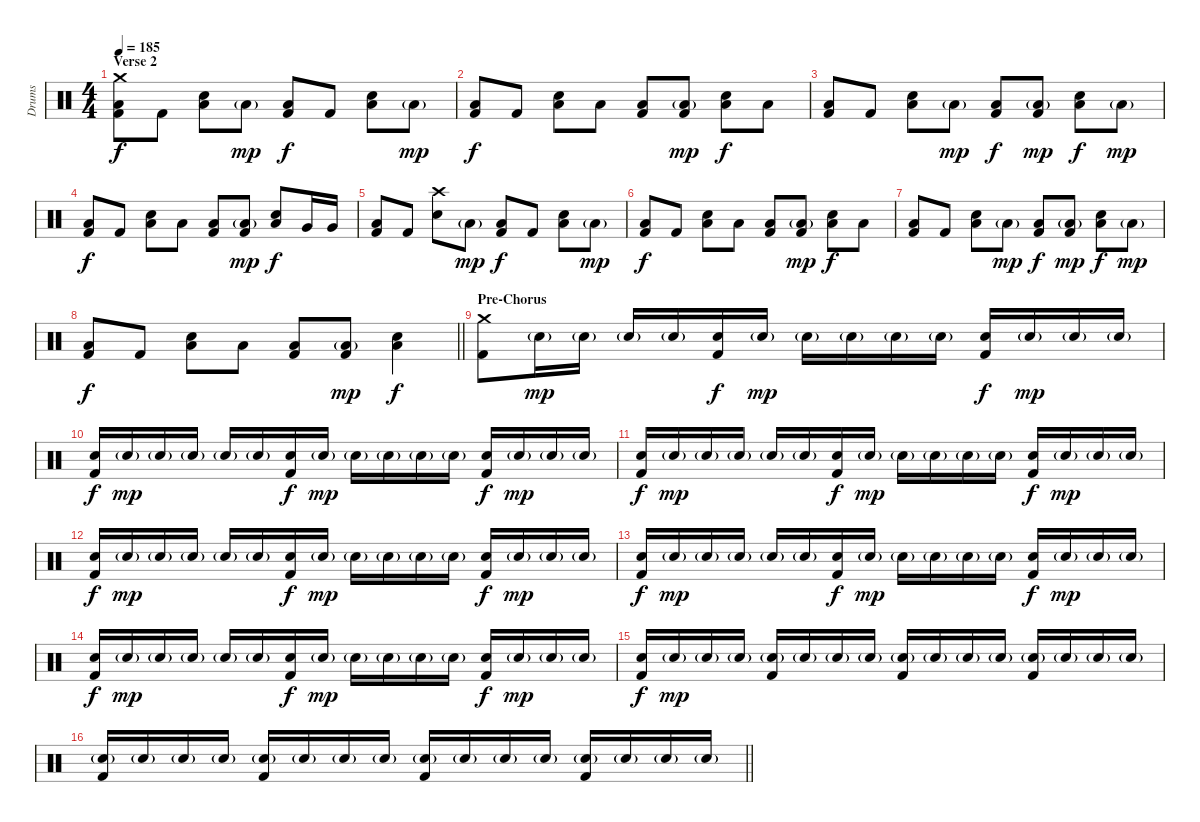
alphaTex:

\track ("Drums" "Drums") {instrument percussion}
\staff {score}
\articulation defaults
\ts (4 4)
\section ("" "Verse 2")
\tempo 185
\clef neutral
\ks c
("Crash medium (hit)" "Low Floor Tom (hit)" "Kick (hit) 2").8{dy f} "Kick (hit) 2".8 ("Low Floor Tom (hit)" "Electric Snare (hit)").8 "Low Floor Tom (hit)"{g}.8{dy mp} ("Low Floor Tom (hit)" "Kick (hit) 2").8{dy f} "Kick (hit) 2".8 ("Low Floor Tom (hit)" "Electric Snare (hit)").8 "Low Floor Tom (hit)"{g}.8{dy mp} |
("Low Floor Tom (hit)" "Kick (hit) 2").8{dy f} "Kick (hit) 2".8 ("Low Floor Tom (hit)" "Electric Snare (hit)").8 "Low Floor Tom (hit)".8 ("Low Floor Tom (hit)" "Kick (hit) 2").8 ("Low Floor Tom (hit)"{g} "Kick (hit) 2").8{dy mp} ("Low Floor Tom (hit)" "Electric Snare (hit)").8{dy f} "Low Floor Tom (hit)".8 |
("Low Floor Tom (hit)" "Kick (hit) 2").8 "Kick (hit) 2".8 ("Low Floor Tom (hit)" "Electric Snare (hit)").8 "Low Floor Tom (hit)"{g}.8{dy mp} ("Low Floor Tom (hit)" "Kick (hit) 2").8{dy f} ("Low Floor Tom (hit)"{g} "Kick (hit) 2").8{dy mp} ("Low Floor Tom (hit)" "Electric Snare (hit)").8{dy f} "Low Floor Tom (hit)"{g}.8{dy mp} |
("Low Floor Tom (hit)" "Kick (hit) 2").8{dy f} "Kick (hit) 2".8 ("Low Floor Tom (hit)" "Electric Snare (hit)").8 "Low Floor Tom (hit)".8 ("Low Floor Tom (hit)" "Kick (hit) 2").8 ("Low Floor Tom (hit)"{g} "Kick (hit) 2").8{dy mp} ("Low Floor Tom (hit)" "Electric Snare (hit)").8{dy f} "Very Low Tom (hit)".16 "Very Low Tom (hit)".16 |
("Low Floor Tom (hit)" "Kick (hit) 2").8 "Kick (hit) 2".8 ("Crash high (hit)" "Electric Snare (hit)").8 "Low Floor Tom (hit)"{g}.8{dy mp} ("Low Floor Tom (hit)" "Kick (hit) 2").8{dy f} "Kick (hit) 2".8 ("Low Floor Tom (hit)" "Electric Snare (hit)").8 "Low Floor Tom (hit)"{g}.8{dy mp} |
("Low Floor Tom (hit)" "Kick (hit) 2").8{dy f} "Kick (hit) 2".8 ("Low Floor Tom (hit)" "Electric Snare (hit)").8 "Low Floor Tom (hit)".8 ("Low Floor Tom (hit)" "Kick (hit) 2").8 ("Low Floor Tom (hit)"{g} "Kick (hit) 2").8{dy mp} ("Low Floor Tom (hit)" "Electric Snare (hit)").8{dy f} "Low Floor Tom (hit)".8 |
("Low Floor Tom (hit)" "Kick (hit) 2").8 "Kick (hit) 2".8 ("Low Floor Tom (hit)" "Electric Snare (hit)").8 "Low Floor Tom (hit)"{g}.8{dy mp} ("Low Floor Tom (hit)" "Kick (hit) 2").8{dy f} ("Low Floor Tom (hit)"{g} "Kick (hit) 2").8{dy mp} ("Low Floor Tom (hit)" "Electric Snare (hit)").8{dy f} "Low Floor Tom (hit)"{g}.8{dy mp} |
\barLineRight lightlight
("Low Floor Tom (hit)" "Kick (hit) 2").8{dy f} "Kick (hit) 2".8 ("Low Floor Tom (hit)" "Electric Snare (hit)").8 "Low Floor Tom (hit)".8 ("Low Floor Tom (hit)" "Kick (hit) 2").8 ("Low Floor Tom (hit)"{g} "Kick (hit) 2").8{dy mp} ("Low Floor Tom (hit)" "Electric Snare (hit)").4{dy f} |
\section ("" "Pre-Chorus")
("Crash medium (hit)" "Kick (hit) 2").8 "Electric Snare (hit)"{g}.16{dy mp} "Electric Snare (hit)"{g}.16 "Electric Snare (hit)"{g}.16 "Electric Snare (hit)"{g}.16 ("Electric Snare (hit)" "Kick (hit) 2").16{dy f} "Electric Snare (hit)"{g}.16{dy mp} "Electric Snare (hit)"{g}.16 "Electric Snare (hit)"{g}.16 "Electric Snare (hit)"{g}.16 "Electric Snare (hit)"{g}.16 ("Electric Snare (hit)" "Kick (hit) 2").16{dy f} "Electric Snare (hit)"{g}.16{dy mp} "Electric Snare (hit)"{g}.16 "Electric Snare (hit)"{g}.16 |
("Electric Snare (hit)" "Kick (hit) 2").16{dy f} "Electric Snare (hit)"{g}.16{dy mp} "Electric Snare (hit)"{g}.16 "Electric Snare (hit)"{g}.16 "Electric Snare (hit)"{g}.16 "Electric Snare (hit)"{g}.16 ("Electric Snare (hit)" "Kick (hit) 2").16{dy f} "Electric Snare (hit)"{g}.16{dy mp} "Electric Snare (hit)"{g}.16 "Electric Snare (hit)"{g}.16 "Electric Snare (hit)"{g}.16 "Electric Snare (hit)"{g}.16 ("Electric Snare (hit)" "Kick (hit) 2").16{dy f} "Electric Snare (hit)"{g}.16{dy mp} "Electric Snare (hit)"{g}.16 "Electric Snare (hit)"{g}.16 |
("Electric Snare (hit)" "Kick (hit) 2").16{dy f} "Electric Snare (hit)"{g}.16{dy mp} "Electric Snare (hit)"{g}.16 "Electric Snare (hit)"{g}.16 "Electric Snare (hit)"{g}.16 "Electric Snare (hit)"{g}.16 ("Electric Snare (hit)" "Kick (hit) 2").16{dy f} "Electric Snare (hit)"{g}.16{dy mp} "Electric Snare (hit)"{g}.16 "Electric Snare (hit)"{g}.16 "Electric Snare (hit)"{g}.16 "Electric Snare (hit)"{g}.16 ("Electric Snare (hit)" "Kick (hit) 2").16{dy f} "Electric Snare (hit)"{g}.16{dy mp} "Electric Snare (hit)"{g}.16 "Electric Snare (hit)"{g}.16 |
("Electric Snare (hit)" "Kick (hit) 2").16{dy f} "Electric Snare (hit)"{g}.16{dy mp} "Electric Snare (hit)"{g}.16 "Electric Snare (hit)"{g}.16 "Electric Snare (hit)"{g}.16 "Electric Snare (hit)"{g}.16 ("Electric Snare (hit)" "Kick (hit) 2").16{dy f} "Electric Snare (hit)"{g}.16{dy mp} "Electric Snare (hit)"{g}.16 "Electric Snare (hit)"{g}.16 "Electric Snare (hit)"{g}.16 "Electric Snare (hit)"{g}.16 ("Electric Snare (hit)" "Kick (hit) 2").16{dy f} "Electric Snare (hit)"{g}.16{dy mp} "Electric Snare (hit)"{g}.16 "Electric Snare (hit)"{g}.16 |
("Electric Snare (hit)" "Kick (hit) 2").16{dy f} "Electric Snare (hit)"{g}.16{dy mp} "Electric Snare (hit)"{g}.16 "Electric Snare (hit)"{g}.16 "Electric Snare (hit)"{g}.16 "Electric Snare (hit)"{g}.16 ("Electric Snare (hit)" "Kick (hit) 2").16{dy f} "Electric Snare (hit)"{g}.16{dy mp} "Electric Snare (hit)"{g}.16 "Electric Snare (hit)"{g}.16 "Electric Snare (hit)"{g}.16 "Electric Snare (hit)"{g}.16 ("Electric Snare (hit)" "Kick (hit) 2").16{dy f} "Electric Snare (hit)"{g}.16{dy mp} "Electric Snare (hit)"{g}.16 "Electric Snare (hit)"{g}.16 |
("Electric Snare (hit)" "Kick (hit) 2").16{dy f} "Electric Snare (hit)"{g}.16{dy mp} "Electric Snare (hit)"{g}.16 "Electric Snare (hit)"{g}.16 "Electric Snare (hit)"{g}.16 "Electric Snare (hit)"{g}.16 ("Electric Snare (hit)" "Kick (hit) 2").16{dy f} "Electric Snare (hit)"{g}.16{dy mp} "Electric Snare (hit)"{g}.16 "Electric Snare (hit)"{g}.16 "Electric Snare (hit)"{g}.16 "Electric Snare (hit)"{g}.16 ("Electric Snare (hit)" "Kick (hit) 2").16{dy f} "Electric Snare (hit)"{g}.16{dy mp} "Electric Snare (hit)"{g}.16 "Electric Snare (hit)"{g}.16 |
("Electric Snare (hit)" "Kick (hit) 2").16{dy f volume 8} "Electric Snare (hit)"{g}.16{dy mp volume 12} "Electric Snare (hit)"{g}.16 "Electric Snare (hit)"{g}.16 ("Electric Snare (hit)"{g} "Kick (hit) 2").16 "Electric Snare (hit)"{g}.16 "Electric Snare (hit)"{g}.16 "Electric Snare (hit)"{g}.16 ("Electric Snare (hit)"{g} "Kick (hit) 2").16 "Electric Snare (hit)"{g}.16 "Electric Snare (hit)"{g}.16 "Electric Snare (hit)"{g}.16 ("Electric Snare (hit)"{g} "Kick (hit) 2").16 "Electric Snare (hit)"{g}.16 "Electric Snare (hit)"{g}.16 "Electric Snare (hit)"{g}.16 |
\barLineRight lightlight
("Electric Snare (hit)"{g} "Kick (hit) 2").16 "Electric Snare (hit)"{g}.16 "Electric Snare (hit)"{g}.16 "Electric Snare (hit)"{g}.16 ("Electric Snare (hit)"{g} "Kick (hit) 2").16 "Electric Snare (hit)"{g}.16 "Electric Snare (hit)"{g}.16 "Electric Snare (hit)"{g}.16 ("Electric Snare (hit)"{g} "Kick (hit) 2").16 "Electric Snare (hit)"{g}.16 "Electric Snare (hit)"{g}.16 "Electric Snare (hit)"{g}.16 ("Electric Snare (hit)"{g} "Kick (hit) 2").16 "Electric Snare (hit)"{g}.16 "Electric Snare (hit)"{g}.16 "Electric Snare (hit)"{g}.16
